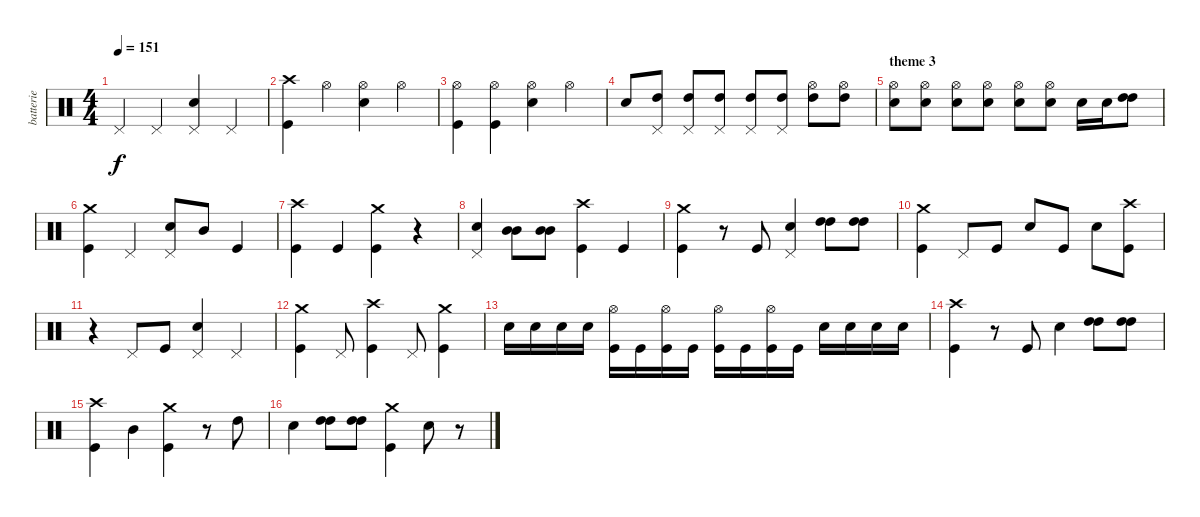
\track ("batterie" "batterie") {instrument percussion}
\staff {score}
\articulation defaults
\ts (4 4)
\tempo 151
\clef neutral
\ks c "Pedal Hi-Hat (hit)".4{dy f} "Pedal Hi-Hat (hit)".4
("Pedal Hi-Hat (hit)" "Snare (hit) 2").4 "Pedal Hi-Hat (hit)".4 |
("Crash high (hit)" "Kick (hit)").4 "Hi-Hat (open)".4 ("Hi-Hat (open)" "Snare (hit) 2").4 "Hi-Hat (open)".4 |
("Hi-Hat (open)" "Kick (hit)").4 ("Hi-Hat (open)" "Kick (hit)").4 ("Hi-Hat (open)" "Snare (hit) 2").4 "Hi-Hat (open)".4 |
"Snare (hit) 2".8 ("Pedal Hi-Hat (hit)" "High Tom (hit)").8 ("Pedal Hi-Hat (hit)" "High Tom (hit)").8 ("Pedal Hi-Hat (hit)" "High Tom (hit)").8 ("Pedal Hi-Hat (hit)" "High Tom (hit)").8 ("Pedal Hi-Hat (hit)" "High Tom (hit)").8 ("Hi-Hat (open)" "High Tom (hit)").8 ("Hi-Hat (open)" "High Tom (hit)").8 |
\section ("" "theme 3")
("Hi-Hat (open)" "Snare (hit) 2").8 ("Hi-Hat (open)" "Snare (hit) 2").8 ("Hi-Hat (open)" "Snare (hit) 2").8 ("Hi-Hat (open)" "Snare (hit) 2").8 ("Hi-Hat (open)" "Snare (hit) 2").8 ("Hi-Hat (open)" "Snare (hit) 2").8 "Snare (hit) 2".16 "Snare (hit) 2".16 ("High Tom (hit)" "High Tom (hit)").8 |
("Crash medium (hit)" "Kick (hit)").4 "Pedal Hi-Hat (hit)".4 ("Pedal Hi-Hat (hit)" "Snare (hit) 2").8 "Mid Tom (hit)".8 "Kick (hit)".4 |
("Crash high (hit)" "Kick (hit)").4 "Kick (hit)".4 ("Crash medium (hit)" "Kick (hit)").4 r.4 |
("Pedal Hi-Hat (hit)" "Snare (hit) 2").4 ("Mid Tom (hit)" "Mid Tom (hit)").8 ("Mid Tom (hit)" "Mid Tom (hit)").8 ("Crash high (hit)" "Kick (hit)").4 "Kick (hit)".4 |
("Crash medium (hit)" "Kick (hit)").4 r.8 "Kick (hit)".8 ("Pedal Hi-Hat (hit)" "Snare (hit) 2").4 ("High Tom (hit)" "High Tom (hit)").8 ("High Tom (hit)" "High Tom (hit)").8 |
("Crash medium (hit)" "Kick (hit)").4 "Pedal Hi-Hat (hit)".8 "Kick (hit)".8 "Snare (hit) 2".8 "Kick (hit)".8 "Snare (hit) 2".8 ("Crash high (hit)" "Kick (hit)").8 |
r.4 "Pedal Hi-Hat (hit)".8 "Kick (hit)".8 ("Pedal Hi-Hat (hit)" "Snare (hit) 2").4 "Pedal Hi-Hat (hit)".4 |
("Crash medium (hit)" "Kick (hit)").4 "Pedal Hi-Hat (hit)".8 ("Crash high (hit)" "Kick (hit)").4 "Pedal Hi-Hat (hit)".8 ("Crash medium (hit)" "Kick (hit)").4 |
"Snare (hit) 2".16 "Snare (hit) 2".16 "Snare (hit) 2".16 "Snare (hit) 2".16 ("Hi-Hat (open)" "Kick (hit)").16 "Kick (hit)".16 ("Hi-Hat (open)" "Kick (hit)").16 "Kick (hit)".16 ("Hi-Hat (open)" "Kick (hit)").16 "Kick (hit)".16 ("Hi-Hat (open)" "Kick (hit)").16 "Kick (hit)".16 "Snare (hit) 2".16 "Snare (hit) 2".16 "Snare (hit) 2".16 "Snare (hit) 2".16 |
("Crash high (hit)" "Kick (hit)").4 r.8 "Kick (hit)".8 "Snare (hit) 2".4 ("High Tom (hit)" "High Tom (hit)").8 ("High Tom (hit)" "High Tom (hit)").8 |
("Crash high (hit)" "Kick (hit)").4 "Mid Tom (hit)".4 ("Crash medium (hit)" "Kick (hit)").4 r.8 "High Tom (hit)".8 |
"Snare (hit) 2".4 ("High Tom (hit)" "High Tom (hit)").8 ("High Tom (hit)" "High Tom (hit)").8 ("Crash medium (hit)" "Kick (hit)").4 "Snare (hit) 2".8 r.8
